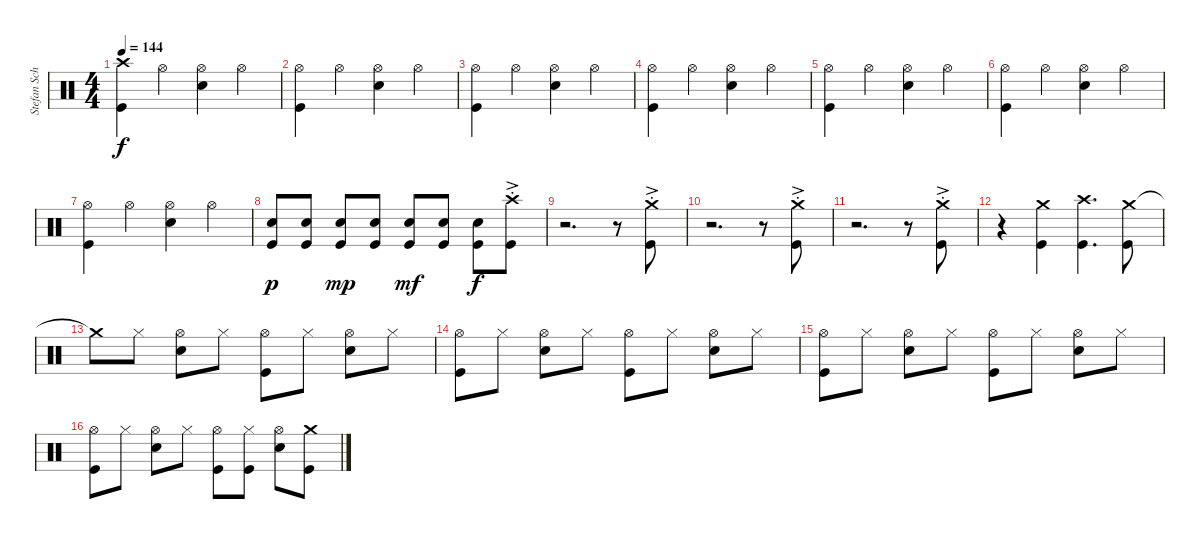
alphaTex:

\track ("Stefan Schwarzmann" "Stefan Sch") {instrument percussion}
\staff {score}
\articulation defaults
\ts (4 4)
\tempo 144
\clef neutral
\ks c
("Kick (hit)" "Crash high (hit)").4{dy f} "Hi-Hat (open)".4 ("Snare (hit) 2" "Hi-Hat (open)").4 "Hi-Hat (open)".4 |
("Kick (hit)" "Hi-Hat (open)").4 "Hi-Hat (open)".4 ("Snare (hit) 2" "Hi-Hat (open)").4 "Hi-Hat (open)".4 |
("Kick (hit)" "Hi-Hat (open)").4 "Hi-Hat (open)".4 ("Snare (hit) 2" "Hi-Hat (open)").4 "Hi-Hat (open)".4 |
("Kick (hit)" "Hi-Hat (open)").4 "Hi-Hat (open)".4 ("Snare (hit) 2" "Hi-Hat (open)").4 "Hi-Hat (open)".4 |
("Kick (hit)" "Hi-Hat (open)").4 "Hi-Hat (open)".4 ("Snare (hit) 2" "Hi-Hat (open)").4 "Hi-Hat (open)".4 |
("Kick (hit)" "Hi-Hat (open)").4 "Hi-Hat (open)".4 ("Snare (hit) 2" "Hi-Hat (open)").4 "Hi-Hat (open)".4 |
("Kick (hit)" "Hi-Hat (open)").4 "Hi-Hat (open)".4 ("Snare (hit) 2" "Hi-Hat (open)").4 "Hi-Hat (open)".4 |
("Snare (hit) 2" "Kick (hit)").8{dy p} ("Snare (hit) 2" "Kick (hit)").8 ("Snare (hit) 2" "Kick (hit)").8{dy mp} ("Snare (hit) 2" "Kick (hit)").8 ("Snare (hit) 2" "Kick (hit)").8{dy mf} ("Snare (hit) 2" "Kick (hit)").8 ("Snare (hit) 2" "Kick (hit)").8{dy f} ("Kick (hit)"{ac st} "Crash high (hit)"{ac st}).8 |
r.2{d} r.8 ("Kick (hit)"{ac st} "Crash medium (hit)"{ac st}).8 |
r.2{d} r.8 ("Kick (hit)"{ac st} "Crash medium (hit)"{ac st}).8 |
r.2{d} r.8 ("Kick (hit)"{ac st} "Crash medium (hit)"{ac st}).8 |
r.4 ("Kick (hit)" "Crash medium (hit)").4 ("Kick (hit)" "Crash high (hit)").4{d} ("Crash medium (hit)" "Kick (hit)").8 |
"Crash medium (hit)"{t}.8 "Hi-Hat (closed)".8 ("Snare (hit) 2" "Hi-Hat (open)").8 "Hi-Hat (closed)".8 ("Kick (hit)" "Hi-Hat (open)").8 "Hi-Hat (closed)".8 ("Snare (hit) 2" "Hi-Hat (open)").8 "Hi-Hat (closed)".8 |
("Kick (hit)" "Hi-Hat (open)").8 "Hi-Hat (closed)".8 ("Snare (hit) 2" "Hi-Hat (open)").8 "Hi-Hat (closed)".8 ("Kick (hit)" "Hi-Hat (open)").8 "Hi-Hat (closed)".8 ("Snare (hit) 2" "Hi-Hat (open)").8 "Hi-Hat (closed)".8 |
("Kick (hit)" "Hi-Hat (open)").8 "Hi-Hat (closed)".8 ("Snare (hit) 2" "Hi-Hat (open)").8 "Hi-Hat (closed)".8 ("Kick (hit)" "Hi-Hat (open)").8 "Hi-Hat (closed)".8 ("Snare (hit) 2" "Hi-Hat (open)").8 "Hi-Hat (closed)".8 |
("Kick (hit)" "Hi-Hat (open)").8 "Hi-Hat (closed)".8 ("Snare (hit) 2" "Hi-Hat (open)").8 "Hi-Hat (closed)".8 ("Kick (hit)" "Hi-Hat (open)").8 ("Kick (hit)" "Hi-Hat (closed)").8 ("Snare (hit) 2" "Hi-Hat (open)").8 ("Crash medium (hit)" "Kick (hit)").8
